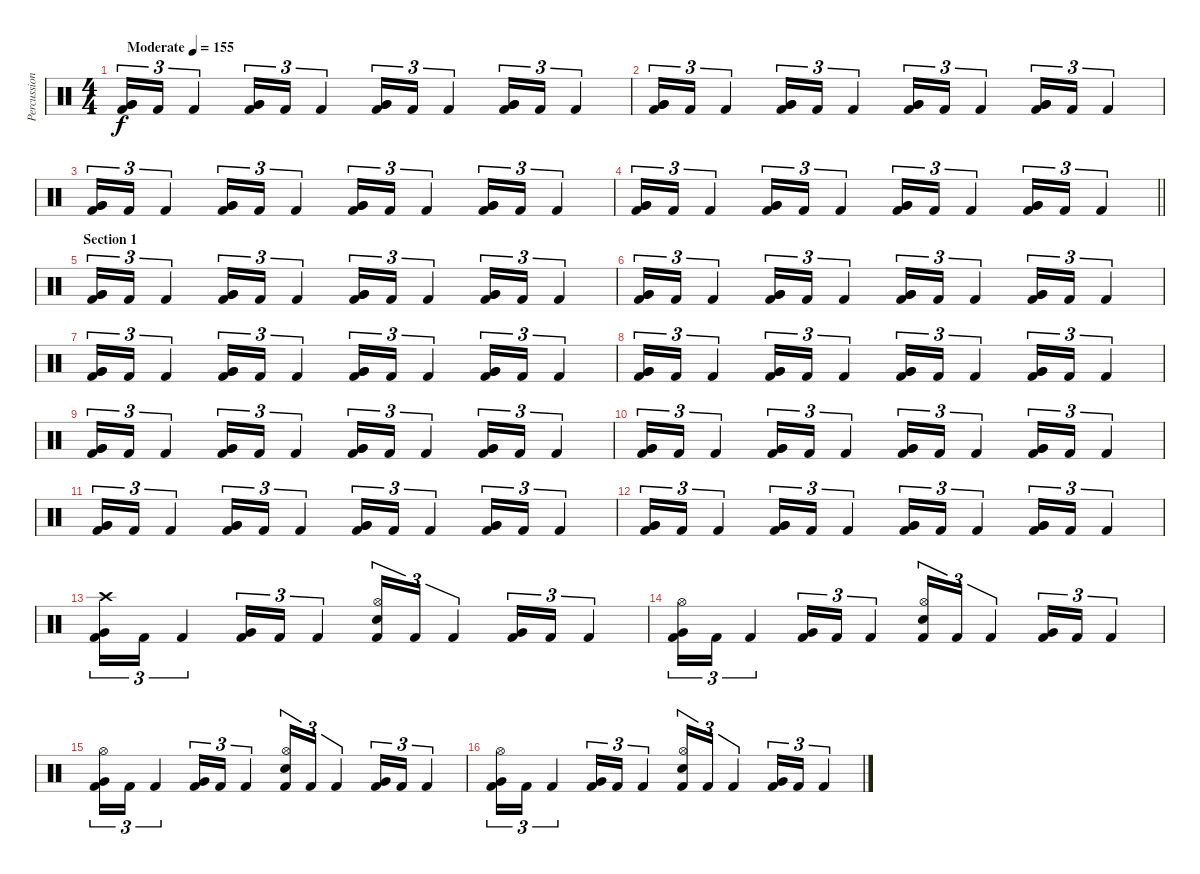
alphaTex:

\track ("Percussion" "Percussion") {instrument percussion}
\staff {score}
\articulation defaults
\ts (4 4)
\tempo (155 "Moderate")
\clef neutral
\ks c
("Very Low Tom (hit)" "Very Low Tom (hit)" "Kick (hit) 2").16{tu (3 2) bd 60 dy f} "Kick (hit) 2".16{tu (3 2)} "Kick (hit) 2".4{tu (3 2)} ("Very Low Tom (hit)" "Very Low Tom (hit)" "Kick (hit) 2").16{tu (3 2) bd 60} "Kick (hit) 2".16{tu (3 2)} "Kick (hit) 2".4{tu (3 2)} ("Very Low Tom (hit)" "Very Low Tom (hit)" "Kick (hit) 2").16{tu (3 2) bd 60} "Kick (hit) 2".16{tu (3 2)} "Kick (hit) 2".4{tu (3 2)} ("Very Low Tom (hit)" "Very Low Tom (hit)" "Kick (hit) 2").16{tu (3 2) bd 60} "Kick (hit) 2".16{tu (3 2)} "Kick (hit) 2".4{tu (3 2)} |
("Very Low Tom (hit)" "Very Low Tom (hit)" "Kick (hit) 2").16{tu (3 2) bd 60} "Kick (hit) 2".16{tu (3 2)} "Kick (hit) 2".4{tu (3 2)} ("Very Low Tom (hit)" "Very Low Tom (hit)" "Kick (hit) 2").16{tu (3 2) bd 60} "Kick (hit) 2".16{tu (3 2)} "Kick (hit) 2".4{tu (3 2)} ("Very Low Tom (hit)" "Very Low Tom (hit)" "Kick (hit) 2").16{tu (3 2) bd 60} "Kick (hit) 2".16{tu (3 2)} "Kick (hit) 2".4{tu (3 2)} ("Very Low Tom (hit)" "Very Low Tom (hit)" "Kick (hit) 2").16{tu (3 2) bd 60} "Kick (hit) 2".16{tu (3 2)} "Kick (hit) 2".4{tu (3 2)} |
("Very Low Tom (hit)" "Very Low Tom (hit)" "Kick (hit) 2").16{tu (3 2) bd 60} "Kick (hit) 2".16{tu (3 2)} "Kick (hit) 2".4{tu (3 2)} ("Very Low Tom (hit)" "Very Low Tom (hit)" "Kick (hit) 2").16{tu (3 2) bd 60} "Kick (hit) 2".16{tu (3 2)} "Kick (hit) 2".4{tu (3 2)} ("Very Low Tom (hit)" "Very Low Tom (hit)" "Kick (hit) 2").16{tu (3 2) bd 60} "Kick (hit) 2".16{tu (3 2)} "Kick (hit) 2".4{tu (3 2)} ("Very Low Tom (hit)" "Very Low Tom (hit)" "Kick (hit) 2").16{tu (3 2) bd 60} "Kick (hit) 2".16{tu (3 2)} "Kick (hit) 2".4{tu (3 2)} |
\barLineRight lightlight
("Very Low Tom (hit)" "Very Low Tom (hit)" "Kick (hit) 2").16{tu (3 2) bd 60} "Kick (hit) 2".16{tu (3 2)} "Kick (hit) 2".4{tu (3 2)} ("Very Low Tom (hit)" "Very Low Tom (hit)" "Kick (hit) 2").16{tu (3 2) bd 60} "Kick (hit) 2".16{tu (3 2)} "Kick (hit) 2".4{tu (3 2)} ("Very Low Tom (hit)" "Very Low Tom (hit)" "Kick (hit) 2").16{tu (3 2) bd 60} "Kick (hit) 2".16{tu (3 2)} "Kick (hit) 2".4{tu (3 2)} ("Very Low Tom (hit)" "Very Low Tom (hit)" "Kick (hit) 2").16{tu (3 2) bd 60} "Kick (hit) 2".16{tu (3 2)} "Kick (hit) 2".4{tu (3 2)} |
\section ("" "Section 1")
("Very Low Tom (hit)" "Very Low Tom (hit)" "Kick (hit) 2").16{tu (3 2) bd 60} "Kick (hit) 2".16{tu (3 2)} "Kick (hit) 2".4{tu (3 2)} ("Very Low Tom (hit)" "Very Low Tom (hit)" "Kick (hit) 2").16{tu (3 2) bd 60} "Kick (hit) 2".16{tu (3 2)} "Kick (hit) 2".4{tu (3 2)} ("Very Low Tom (hit)" "Very Low Tom (hit)" "Kick (hit) 2").16{tu (3 2) bd 60} "Kick (hit) 2".16{tu (3 2)} "Kick (hit) 2".4{tu (3 2)} ("Very Low Tom (hit)" "Very Low Tom (hit)" "Kick (hit) 2").16{tu (3 2) bd 60} "Kick (hit) 2".16{tu (3 2)} "Kick (hit) 2".4{tu (3 2)} |
("Very Low Tom (hit)" "Very Low Tom (hit)" "Kick (hit) 2").16{tu (3 2) bd 60} "Kick (hit) 2".16{tu (3 2)} "Kick (hit) 2".4{tu (3 2)} ("Very Low Tom (hit)" "Very Low Tom (hit)" "Kick (hit) 2").16{tu (3 2) bd 60} "Kick (hit) 2".16{tu (3 2)} "Kick (hit) 2".4{tu (3 2)} ("Very Low Tom (hit)" "Very Low Tom (hit)" "Kick (hit) 2").16{tu (3 2) bd 60} "Kick (hit) 2".16{tu (3 2)} "Kick (hit) 2".4{tu (3 2)} ("Very Low Tom (hit)" "Very Low Tom (hit)" "Kick (hit) 2").16{tu (3 2) bd 60} "Kick (hit) 2".16{tu (3 2)} "Kick (hit) 2".4{tu (3 2)} |
("Very Low Tom (hit)" "Very Low Tom (hit)" "Kick (hit) 2").16{tu (3 2) bd 60} "Kick (hit) 2".16{tu (3 2)} "Kick (hit) 2".4{tu (3 2)} ("Very Low Tom (hit)" "Very Low Tom (hit)" "Kick (hit) 2").16{tu (3 2) bd 60} "Kick (hit) 2".16{tu (3 2)} "Kick (hit) 2".4{tu (3 2)} ("Very Low Tom (hit)" "Very Low Tom (hit)" "Kick (hit) 2").16{tu (3 2) bd 60} "Kick (hit) 2".16{tu (3 2)} "Kick (hit) 2".4{tu (3 2)} ("Very Low Tom (hit)" "Very Low Tom (hit)" "Kick (hit) 2").16{tu (3 2) bd 60} "Kick (hit) 2".16{tu (3 2)} "Kick (hit) 2".4{tu (3 2)} |
("Very Low Tom (hit)" "Very Low Tom (hit)" "Kick (hit) 2").16{tu (3 2) bd 60} "Kick (hit) 2".16{tu (3 2)} "Kick (hit) 2".4{tu (3 2)} ("Very Low Tom (hit)" "Very Low Tom (hit)" "Kick (hit) 2").16{tu (3 2) bd 60} "Kick (hit) 2".16{tu (3 2)} "Kick (hit) 2".4{tu (3 2)} ("Very Low Tom (hit)" "Very Low Tom (hit)" "Kick (hit) 2").16{tu (3 2) bd 60} "Kick (hit) 2".16{tu (3 2)} "Kick (hit) 2".4{tu (3 2)} ("Very Low Tom (hit)" "Very Low Tom (hit)" "Kick (hit) 2").16{tu (3 2) bd 60} "Kick (hit) 2".16{tu (3 2)} "Kick (hit) 2".4{tu (3 2)} |
("Very Low Tom (hit)" "Very Low Tom (hit)" "Kick (hit) 2").16{tu (3 2) bd 60} "Kick (hit) 2".16{tu (3 2)} "Kick (hit) 2".4{tu (3 2)} ("Very Low Tom (hit)" "Very Low Tom (hit)" "Kick (hit) 2").16{tu (3 2) bd 60} "Kick (hit) 2".16{tu (3 2)} "Kick (hit) 2".4{tu (3 2)} ("Very Low Tom (hit)" "Very Low Tom (hit)" "Kick (hit) 2").16{tu (3 2) bd 60} "Kick (hit) 2".16{tu (3 2)} "Kick (hit) 2".4{tu (3 2)} ("Very Low Tom (hit)" "Very Low Tom (hit)" "Kick (hit) 2").16{tu (3 2) bd 60} "Kick (hit) 2".16{tu (3 2)} "Kick (hit) 2".4{tu (3 2)} |
("Very Low Tom (hit)" "Very Low Tom (hit)" "Kick (hit) 2").16{tu (3 2) bd 60} "Kick (hit) 2".16{tu (3 2)} "Kick (hit) 2".4{tu (3 2)} ("Very Low Tom (hit)" "Very Low Tom (hit)" "Kick (hit) 2").16{tu (3 2) bd 60} "Kick (hit) 2".16{tu (3 2)} "Kick (hit) 2".4{tu (3 2)} ("Very Low Tom (hit)" "Very Low Tom (hit)" "Kick (hit) 2").16{tu (3 2) bd 60} "Kick (hit) 2".16{tu (3 2)} "Kick (hit) 2".4{tu (3 2)} ("Very Low Tom (hit)" "Very Low Tom (hit)" "Kick (hit) 2").16{tu (3 2) bd 60} "Kick (hit) 2".16{tu (3 2)} "Kick (hit) 2".4{tu (3 2)} |
("Very Low Tom (hit)" "Very Low Tom (hit)" "Kick (hit) 2").16{tu (3 2) bd 60} "Kick (hit) 2".16{tu (3 2)} "Kick (hit) 2".4{tu (3 2)} ("Very Low Tom (hit)" "Very Low Tom (hit)" "Kick (hit) 2").16{tu (3 2) bd 60} "Kick (hit) 2".16{tu (3 2)} "Kick (hit) 2".4{tu (3 2)} ("Very Low Tom (hit)" "Very Low Tom (hit)" "Kick (hit) 2").16{tu (3 2) bd 60} "Kick (hit) 2".16{tu (3 2)} "Kick (hit) 2".4{tu (3 2)} ("Very Low Tom (hit)" "Very Low Tom (hit)" "Kick (hit) 2").16{tu (3 2) bd 60} "Kick (hit) 2".16{tu (3 2)} "Kick (hit) 2".4{tu (3 2)} |
("Very Low Tom (hit)" "Very Low Tom (hit)" "Kick (hit) 2").16{tu (3 2) bd 60} "Kick (hit) 2".16{tu (3 2)} "Kick (hit) 2".4{tu (3 2)} ("Very Low Tom (hit)" "Very Low Tom (hit)" "Kick (hit) 2").16{tu (3 2) bd 60} "Kick (hit) 2".16{tu (3 2)} "Kick (hit) 2".4{tu (3 2)} ("Very Low Tom (hit)" "Very Low Tom (hit)" "Kick (hit) 2").16{tu (3 2) bd 60} "Kick (hit) 2".16{tu (3 2)} "Kick (hit) 2".4{tu (3 2)} ("Very Low Tom (hit)" "Very Low Tom (hit)" "Kick (hit) 2").16{tu (3 2) bd 60} "Kick (hit) 2".16{tu (3 2)} "Kick (hit) 2".4{tu (3 2)} |
("Crash high (hit)" "Very Low Tom (hit)" "Kick (hit) 2").16{tu (3 2)} "Kick (hit) 2".16{tu (3 2)} "Kick (hit) 2".4{tu (3 2)} ("Very Low Tom (hit)" "Kick (hit) 2").16{tu (3 2)} "Kick (hit) 2".16{tu (3 2)} "Kick (hit) 2".4{tu (3 2)} ("Hi-Hat (open)" "Electric Snare (hit)" "Kick (hit) 2").16{tu (3 2)} "Kick (hit) 2".16{tu (3 2)} "Kick (hit) 2".4{tu (3 2)} ("Very Low Tom (hit)" "Kick (hit) 2").16{tu (3 2)} "Kick (hit) 2".16{tu (3 2)} "Kick (hit) 2".4{tu (3 2)} |
("Hi-Hat (open)" "Very Low Tom (hit)" "Kick (hit) 2").16{tu (3 2)} "Kick (hit) 2".16{tu (3 2)} "Kick (hit) 2".4{tu (3 2)} ("Very Low Tom (hit)" "Kick (hit) 2").16{tu (3 2)} "Kick (hit) 2".16{tu (3 2)} "Kick (hit) 2".4{tu (3 2)} ("Hi-Hat (open)" "Electric Snare (hit)" "Kick (hit) 2").16{tu (3 2)} "Kick (hit) 2".16{tu (3 2)} "Kick (hit) 2".4{tu (3 2)} ("Very Low Tom (hit)" "Kick (hit) 2").16{tu (3 2)} "Kick (hit) 2".16{tu (3 2)} "Kick (hit) 2".4{tu (3 2)} |
("Hi-Hat (open)" "Very Low Tom (hit)" "Kick (hit) 2").16{tu (3 2)} "Kick (hit) 2".16{tu (3 2)} "Kick (hit) 2".4{tu (3 2)} ("Very Low Tom (hit)" "Kick (hit) 2").16{tu (3 2)} "Kick (hit) 2".16{tu (3 2)} "Kick (hit) 2".4{tu (3 2)} ("Hi-Hat (open)" "Electric Snare (hit)" "Kick (hit) 2").16{tu (3 2)} "Kick (hit) 2".16{tu (3 2)} "Kick (hit) 2".4{tu (3 2)} ("Very Low Tom (hit)" "Kick (hit) 2").16{tu (3 2)} "Kick (hit) 2".16{tu (3 2)} "Kick (hit) 2".4{tu (3 2)} |
("Hi-Hat (open)" "Very Low Tom (hit)" "Kick (hit) 2").16{tu (3 2)} "Kick (hit) 2".16{tu (3 2)} "Kick (hit) 2".4{tu (3 2)} ("Very Low Tom (hit)" "Kick (hit) 2").16{tu (3 2)} "Kick (hit) 2".16{tu (3 2)} "Kick (hit) 2".4{tu (3 2)} ("Hi-Hat (open)" "Electric Snare (hit)" "Kick (hit) 2").16{tu (3 2)} "Kick (hit) 2".16{tu (3 2)} "Kick (hit) 2".4{tu (3 2)} ("Very Low Tom (hit)" "Kick (hit) 2").16{tu (3 2)} "Kick (hit) 2".16{tu (3 2)} "Kick (hit) 2".4{tu (3 2)}
